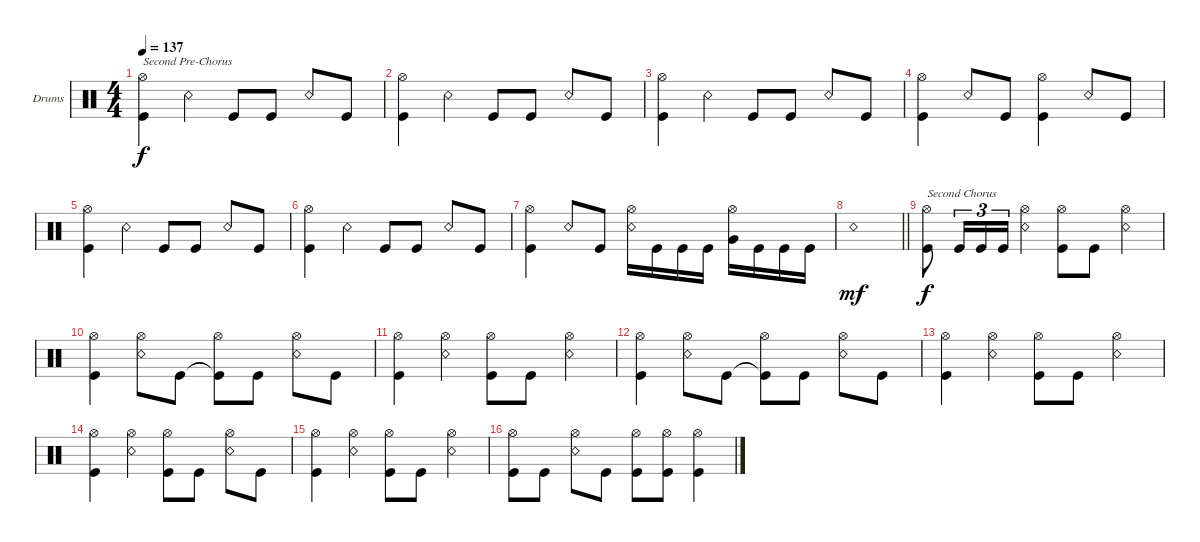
\defaultSystemsLayout 4
\bracketExtendMode groupsimilarinstruments
\firstSystemTrackNameOrientation horizontal
\otherSystemsTrackNameOrientation horizontal
\track ("Drums" "Drums") {instrument percussion}
\staff {score}
\articulation defaults
\ts (4 4)
\tempo 137
\clef neutral
\scale
0.333333
\ks c
("Kick (hit)" "Hi-Hat (open)").4{txt "Second Pre-Chorus" dy f} "Snare (rim shot)".4 "Kick (hit)".8 "Kick (hit)".8 "Snare (rim shot)".8 "Kick (hit)".8 |
\scale
0.333333 ("Kick (hit)" "Hi-Hat (open)").4 "Snare (rim shot)".4 "Kick (hit)".8 "Kick (hit)".8 "Snare (rim shot)".8 "Kick (hit)".8 |
\scale
0.333333 ("Kick (hit)" "Hi-Hat (open)").4 "Snare (rim shot)".4 "Kick (hit)".8 "Kick (hit)".8 "Snare (rim shot)".8 "Kick (hit)".8 |
\scale
0.333333 ("Kick (hit)" "Hi-Hat (open)").4 "Snare (rim shot)".8 "Kick (hit)".8 ("Kick (hit)" "Hi-Hat (open)").4 "Snare (rim shot)".8 "Kick (hit)".8 |
\scale
0.333333 ("Kick (hit)" "Hi-Hat (open)").4 "Snare (rim shot)".4 "Kick (hit)".8 "Kick (hit)".8 "Snare (rim shot)".8 "Kick (hit)".8 |
\scale
0.333333 ("Kick (hit)" "Hi-Hat (open)").4 "Snare (rim shot)".4 "Kick (hit)".8 "Kick (hit)".8 "Snare (rim shot)".8 "Kick (hit)".8 |
\scale
0.333333 ("Kick (hit)" "Hi-Hat (open)").4 "Snare (rim shot)".8 "Kick (hit)".8 ("Snare (rim shot)" "Hi-Hat (open)").16 "Kick (hit)".16 "Kick (hit)".16 "Kick (hit)".16 ("Very Low Tom (hit)" "Hi-Hat (open)").16 "Kick (hit)".16 "Kick (hit)".16 "Kick (hit)".16 |
\scale
0.333333
\barLineRight lightlight "Snare (rim shot)".1{dy mf}
|
\scale
0.333333 ("Kick (hit)" "Hi-Hat (open)").8{txt "Second Chorus" dy f} "Kick (hit)".16{tu (3 2)} "Kick (hit)".16{tu (3 2)} "Kick (hit)".16{tu (3 2)} ("Snare (rim shot)" "Hi-Hat (open)").4 ("Kick (hit)" "Hi-Hat (open)").8 "Kick (hit)".8 ("Snare (rim shot)" "Hi-Hat (open)").4 |
\scale
0.333333 ("Kick (hit)" "Hi-Hat (open)").4 ("Snare (rim shot)" "Hi-Hat (open)").8 "Kick (hit)".8 ("Kick (hit)"{t} "Hi-Hat (open)").8 "Kick (hit)".8 ("Snare (rim shot)" "Hi-Hat (open)").8 "Kick (hit)".8 |
\scale
0.333333 ("Kick (hit)" "Hi-Hat (open)").4 ("Snare (rim shot)" "Hi-Hat (open)").4 ("Kick (hit)" "Hi-Hat (open)").8 "Kick (hit)".8 ("Snare (rim shot)" "Hi-Hat (open)").4 |
\scale
0.333333 ("Kick (hit)" "Hi-Hat (open)").4 ("Snare (rim shot)" "Hi-Hat (open)").8 "Kick (hit)".8 ("Kick (hit)"{t} "Hi-Hat (open)").8 "Kick (hit)".8 ("Snare (rim shot)" "Hi-Hat (open)").8 "Kick (hit)".8 |
\scale
0.333333 ("Kick (hit)" "Hi-Hat (open)").4 ("Snare (rim shot)" "Hi-Hat (open)").4 ("Kick (hit)" "Hi-Hat (open)").8 "Kick (hit)".8 ("Snare (rim shot)" "Hi-Hat (open)").4 |
\scale
0.333333 ("Kick (hit)" "Hi-Hat (open)").4 ("Snare (rim shot)" "Hi-Hat (open)").4 ("Kick (hit)" "Hi-Hat (open)").8 "Kick (hit)".8 ("Snare (rim shot)" "Hi-Hat (open)").8 "Kick (hit)".8 |
\scale
0.333333 ("Kick (hit)" "Hi-Hat (open)").4 ("Snare (rim shot)" "Hi-Hat (open)").4 ("Kick (hit)" "Hi-Hat (open)").8 "Kick (hit)".8 ("Snare (rim shot)" "Hi-Hat (open)").4 |
\scale
0.333333 ("Kick (hit)" "Hi-Hat (open)").8 "Kick (hit)".8 ("Snare (rim shot)" "Hi-Hat (open)").8 "Kick (hit)".8 ("Kick (hit)" "Hi-Hat (open)").8 ("Kick (hit)" "Hi-Hat (open)").8 ("Kick (hit)" "Hi-Hat (open)").4
